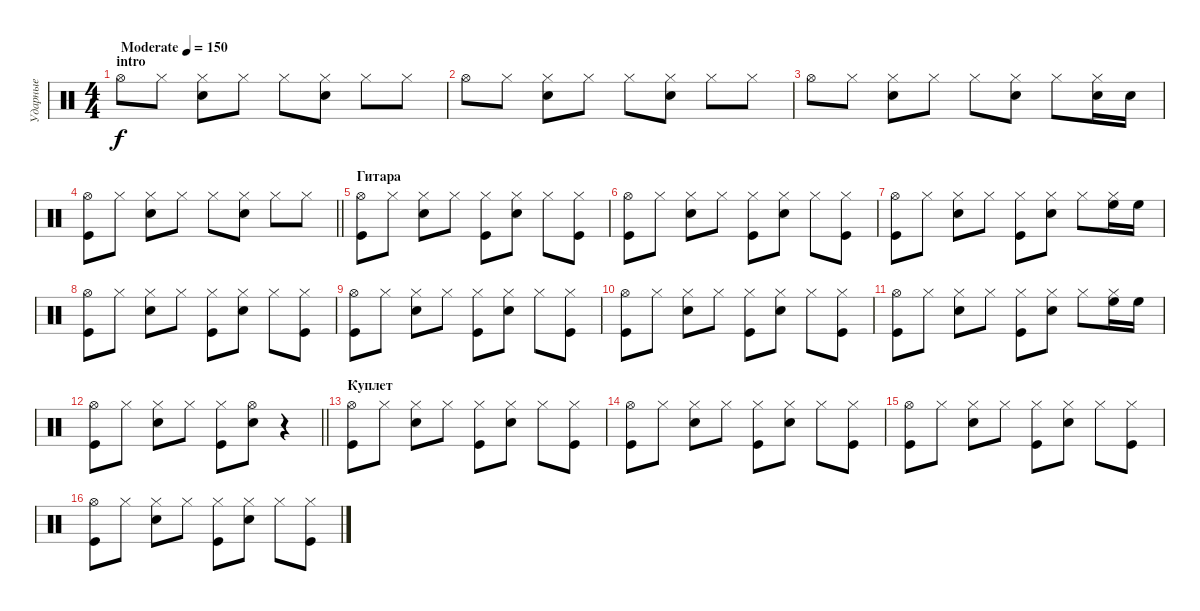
\track ("Ударные" "Ударные") {instrument percussion}
\staff {score}
\articulation defaults
\ts (4 4)
\section ("" "intro")
\tempo (150 "Moderate")
\clef neutral
\ks c "Hi-Hat (open)".8{dy f} "Hi-Hat (closed)".8
("Hi-Hat (closed)" "Snare (hit) 2").8 "Hi-Hat (closed)".8 "Hi-Hat (closed)".8 ("Hi-Hat (closed)" "Snare (hit) 2").8 "Hi-Hat (closed)".8 "Hi-Hat (closed)".8 |
"Hi-Hat (open)".8 "Hi-Hat (closed)".8 ("Hi-Hat (closed)" "Snare (hit) 2").8 "Hi-Hat (closed)".8 "Hi-Hat (closed)".8 ("Hi-Hat (closed)" "Snare (hit) 2").8 "Hi-Hat (closed)".8 "Hi-Hat (closed)".8 |
"Hi-Hat (open)".8 "Hi-Hat (closed)".8 ("Hi-Hat (closed)" "Snare (hit) 2").8 "Hi-Hat (closed)".8 "Hi-Hat (closed)".8 ("Hi-Hat (closed)" "Snare (hit) 2").8 "Hi-Hat (closed)".8 ("Hi-Hat (closed)" "Snare (hit) 2").16 "Snare (hit) 2".16 |
\barLineRight lightlight
("Hi-Hat (open)" "Kick (hit)").8 "Hi-Hat (closed)".8 ("Hi-Hat (closed)" "Snare (hit) 2").8 "Hi-Hat (closed)".8 "Hi-Hat (closed)".8 ("Hi-Hat (closed)" "Snare (hit) 2").8 "Hi-Hat (closed)".8 "Hi-Hat (closed)".8 |
\section ("" "Гитара")
("Hi-Hat (open)" "Kick (hit)").8 "Hi-Hat (closed)".8 ("Hi-Hat (closed)" "Snare (hit) 2").8 "Hi-Hat (closed)".8 ("Hi-Hat (closed)" "Kick (hit)").8 ("Hi-Hat (closed)" "Snare (hit) 2").8 "Hi-Hat (closed)".8 ("Hi-Hat (closed)" "Kick (hit)").8 |
("Hi-Hat (open)" "Kick (hit)").8 "Hi-Hat (closed)".8 ("Hi-Hat (closed)" "Snare (hit) 2").8 "Hi-Hat (closed)".8 ("Hi-Hat (closed)" "Kick (hit)").8 ("Hi-Hat (closed)" "Snare (hit) 2").8 "Hi-Hat (closed)".8 ("Hi-Hat (closed)" "Kick (hit)").8 |
("Hi-Hat (open)" "Kick (hit)").8 "Hi-Hat (closed)".8 ("Hi-Hat (closed)" "Snare (hit) 2").8 "Hi-Hat (closed)".8 ("Hi-Hat (closed)" "Kick (hit)").8 ("Hi-Hat (closed)" "Snare (hit) 2").8 "Hi-Hat (closed)".8 ("Hi-Hat (closed)" "High Floor Tom (hit)").16 "High Floor Tom (hit)".16 |
("Hi-Hat (open)" "Kick (hit)").8 "Hi-Hat (closed)".8 ("Hi-Hat (closed)" "Snare (hit) 2").8 "Hi-Hat (closed)".8 ("Hi-Hat (closed)" "Kick (hit)").8 ("Hi-Hat (closed)" "Snare (hit) 2").8 "Hi-Hat (closed)".8 ("Hi-Hat (closed)" "Kick (hit)").8 |
("Hi-Hat (open)" "Kick (hit)").8 "Hi-Hat (closed)".8 ("Hi-Hat (closed)" "Snare (hit) 2").8 "Hi-Hat (closed)".8 ("Hi-Hat (closed)" "Kick (hit)").8 ("Hi-Hat (closed)" "Snare (hit) 2").8 "Hi-Hat (closed)".8 ("Hi-Hat (closed)" "Kick (hit)").8 |
("Hi-Hat (open)" "Kick (hit)").8 "Hi-Hat (closed)".8 ("Hi-Hat (closed)" "Snare (hit) 2").8 "Hi-Hat (closed)".8 ("Hi-Hat (closed)" "Kick (hit)").8 ("Hi-Hat (closed)" "Snare (hit) 2").8 "Hi-Hat (closed)".8 ("Hi-Hat (closed)" "Kick (hit)").8 |
("Hi-Hat (open)" "Kick (hit)").8 "Hi-Hat (closed)".8 ("Hi-Hat (closed)" "Snare (hit) 2").8 "Hi-Hat (closed)".8 ("Hi-Hat (closed)" "Kick (hit)").8 ("Hi-Hat (closed)" "Snare (hit) 2").8 "Hi-Hat (closed)".8 ("Hi-Hat (closed)" "High Floor Tom (hit)").16 "High Floor Tom (hit)".16 |
\barLineRight lightlight
("Hi-Hat (open)" "Kick (hit)").8 "Hi-Hat (closed)".8 ("Hi-Hat (closed)" "Snare (hit) 2").8 "Hi-Hat (closed)".8 ("Hi-Hat (closed)" "Kick (hit)").8 ("Hi-Hat (open)" "Snare (hit) 2").8 r.4 |
\section ("" "Куплет")
("Hi-Hat (open)" "Kick (hit)").8 "Hi-Hat (closed)".8 ("Hi-Hat (closed)" "Snare (hit) 2").8 "Hi-Hat (closed)".8 ("Hi-Hat (closed)" "Kick (hit)").8 ("Hi-Hat (closed)" "Snare (hit) 2").8 "Hi-Hat (closed)".8 ("Hi-Hat (closed)" "Kick (hit)").8 |
("Hi-Hat (open)" "Kick (hit)").8 "Hi-Hat (closed)".8 ("Hi-Hat (closed)" "Snare (hit) 2").8 "Hi-Hat (closed)".8 ("Hi-Hat (closed)" "Kick (hit)").8 ("Hi-Hat (closed)" "Snare (hit) 2").8 "Hi-Hat (closed)".8 ("Hi-Hat (closed)" "Kick (hit)").8 |
("Hi-Hat (open)" "Kick (hit)").8 "Hi-Hat (closed)".8 ("Hi-Hat (closed)" "Snare (hit) 2").8 "Hi-Hat (closed)".8 ("Hi-Hat (closed)" "Kick (hit)").8 ("Hi-Hat (closed)" "Snare (hit) 2").8 "Hi-Hat (closed)".8 ("Hi-Hat (closed)" "Kick (hit)").8 |
("Hi-Hat (open)" "Kick (hit)").8 "Hi-Hat (closed)".8 ("Hi-Hat (closed)" "Snare (hit) 2").8 "Hi-Hat (closed)".8 ("Hi-Hat (closed)" "Kick (hit)").8 ("Hi-Hat (closed)" "Snare (hit) 2").8 "Hi-Hat (closed)".8 ("Hi-Hat (closed)" "Kick (hit)").8
